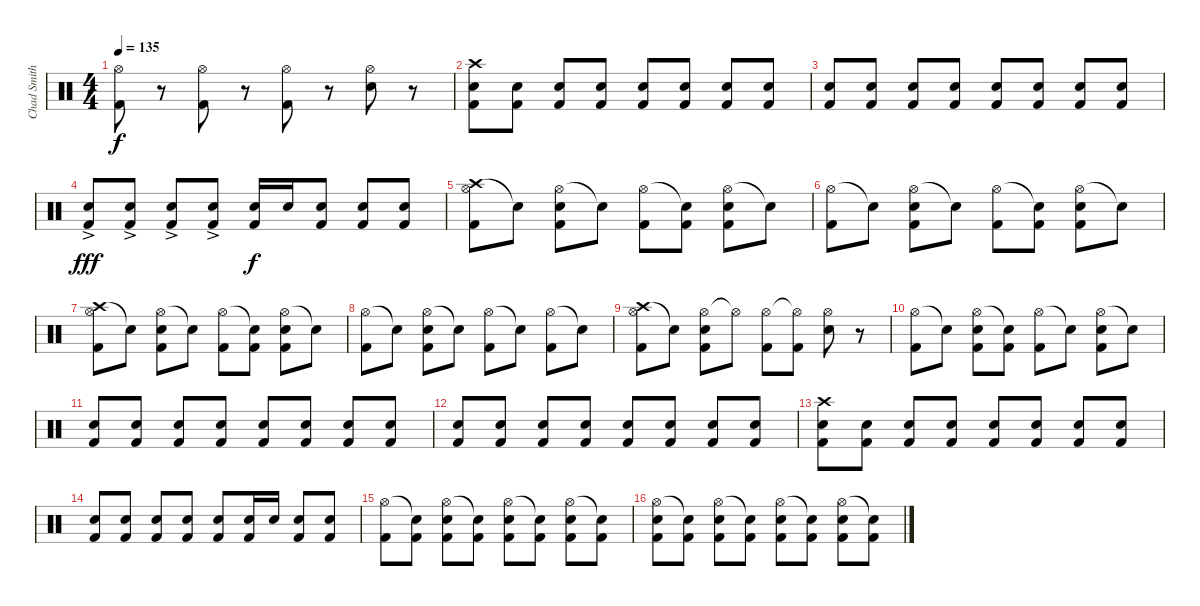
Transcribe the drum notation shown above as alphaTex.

\track ("Chad Smith" "Chad Smith") {instrument percussion}
\staff {score}
\articulation defaults
\ts (4 4)
\tempo 135
\clef neutral
\ks c
("Hi-Hat (open)" "Kick (hit) 2").8{dy f} r.8 ("Hi-Hat (open)" "Kick (hit) 2").8 r.8 ("Hi-Hat (open)" "Kick (hit) 2").8 r.8 ("Hi-Hat (open)" "Electric Snare (hit)").8 r.8 |
("Crash high (hit)" "Electric Snare (hit)" "Kick (hit) 2").8 ("Electric Snare (hit)" "Kick (hit) 2").8 ("Electric Snare (hit)" "Kick (hit) 2").8 ("Electric Snare (hit)" "Kick (hit) 2").8 ("Electric Snare (hit)" "Kick (hit) 2").8 ("Electric Snare (hit)" "Kick (hit) 2").8 ("Electric Snare (hit)" "Kick (hit) 2").8 ("Electric Snare (hit)" "Kick (hit) 2").8 |
("Electric Snare (hit)" "Kick (hit) 2").8 ("Electric Snare (hit)" "Kick (hit) 2").8 ("Electric Snare (hit)" "Kick (hit) 2").8 ("Electric Snare (hit)" "Kick (hit) 2").8 ("Electric Snare (hit)" "Kick (hit) 2").8 ("Electric Snare (hit)" "Kick (hit) 2").8 ("Electric Snare (hit)" "Kick (hit) 2").8 ("Electric Snare (hit)" "Kick (hit) 2").8 |
("Electric Snare (hit)"{ac} "Kick (hit) 2").8{dy fff} ("Electric Snare (hit)"{ac} "Kick (hit) 2").8 ("Electric Snare (hit)"{ac} "Kick (hit) 2").8 ("Electric Snare (hit)"{ac} "Kick (hit) 2").8 ("Electric Snare (hit)" "Kick (hit) 2").16{dy f} "Electric Snare (hit)".16 ("Electric Snare (hit)" "Kick (hit) 2").8 ("Electric Snare (hit)" "Kick (hit) 2").8 ("Electric Snare (hit)" "Kick (hit) 2").8 |
("Crash high (hit)" "Hi-Hat (open)" "Kick (hit) 2").8 "Snare (hit)"{t}.8 ("Hi-Hat (open)" "Electric Snare (hit)" "Kick (hit) 2").8 "Snare (hit)"{t}.8 ("Hi-Hat (open)" "Kick (hit) 2").8 ("Snare (hit)"{t} "Kick (hit) 2").8 ("Hi-Hat (open)" "Electric Snare (hit)" "Kick (hit) 2").8 "Snare (hit)"{t}.8 |
("Hi-Hat (open)" "Kick (hit) 2").8 "Snare (hit)"{t}.8 ("Hi-Hat (open)" "Electric Snare (hit)" "Kick (hit) 2").8 "Snare (hit)"{t}.8 ("Hi-Hat (open)" "Kick (hit) 2").8 ("Snare (hit)"{t} "Kick (hit) 2").8 ("Hi-Hat (open)" "Electric Snare (hit)" "Kick (hit) 2").8 "Snare (hit)"{t}.8 |
("Crash high (hit)" "Hi-Hat (open)" "Kick (hit) 2").8 "Snare (hit)"{t}.8 ("Hi-Hat (open)" "Electric Snare (hit)" "Kick (hit) 2").8 "Snare (hit)"{t}.8 ("Hi-Hat (open)" "Kick (hit) 2").8 ("Snare (hit)"{t} "Kick (hit) 2").8 ("Hi-Hat (open)" "Electric Snare (hit)" "Kick (hit) 2").8 "Snare (hit)"{t}.8 |
("Hi-Hat (open)" "Kick (hit) 2").8 "Snare (hit)"{t}.8 ("Hi-Hat (open)" "Electric Snare (hit)" "Kick (hit) 2").8 "Snare (hit)"{t}.8 ("Hi-Hat (open)" "Kick (hit) 2").8 "Snare (hit)"{t}.8 ("Hi-Hat (open)" "Kick (hit) 2").8 "Snare (hit)"{t}.8 |
("Crash high (hit)" "Hi-Hat (open)" "Kick (hit) 2").8 "Snare (hit)"{t}.8 ("Hi-Hat (open)" "Electric Snare (hit)" "Kick (hit) 2").8 "Hi-Hat (open)"{t}.8 ("Hi-Hat (open)" "Kick (hit) 2").8 ("Hi-Hat (open)"{t} "Kick (hit) 2").8 ("Hi-Hat (open)" "Electric Snare (hit)").8 r.8 |
("Hi-Hat (open)" "Kick (hit) 2").8 "Snare (hit)"{t}.8 ("Hi-Hat (open)" "Electric Snare (hit)" "Kick (hit) 2").8 ("Snare (hit)"{t} "Kick (hit) 2").8 ("Hi-Hat (open)" "Kick (hit) 2").8 "Snare (hit)"{t}.8 ("Hi-Hat (open)" "Electric Snare (hit)" "Kick (hit) 2").8 "Snare (hit)"{t}.8 |
("Electric Snare (hit)" "Kick (hit) 2").8 ("Electric Snare (hit)" "Kick (hit) 2").8 ("Electric Snare (hit)" "Kick (hit) 2").8 ("Electric Snare (hit)" "Kick (hit) 2").8 ("Electric Snare (hit)" "Kick (hit) 2").8 ("Electric Snare (hit)" "Kick (hit) 2").8 ("Electric Snare (hit)" "Kick (hit) 2").8 ("Electric Snare (hit)" "Kick (hit) 2").8 |
("Electric Snare (hit)" "Kick (hit) 2").8 ("Electric Snare (hit)" "Kick (hit) 2").8 ("Electric Snare (hit)" "Kick (hit) 2").8 ("Electric Snare (hit)" "Kick (hit) 2").8 ("Electric Snare (hit)" "Kick (hit) 2").8 ("Electric Snare (hit)" "Kick (hit) 2").8 ("Electric Snare (hit)" "Kick (hit) 2").8 ("Electric Snare (hit)" "Kick (hit) 2").8 |
("Crash high (hit)" "Electric Snare (hit)" "Kick (hit) 2").8 ("Electric Snare (hit)" "Kick (hit) 2").8 ("Electric Snare (hit)" "Kick (hit) 2").8 ("Electric Snare (hit)" "Kick (hit) 2").8 ("Electric Snare (hit)" "Kick (hit) 2").8 ("Electric Snare (hit)" "Kick (hit) 2").8 ("Electric Snare (hit)" "Kick (hit) 2").8 ("Electric Snare (hit)" "Kick (hit) 2").8 |
("Electric Snare (hit)" "Kick (hit) 2").8 ("Electric Snare (hit)" "Kick (hit) 2").8 ("Electric Snare (hit)" "Kick (hit) 2").8 ("Electric Snare (hit)" "Kick (hit) 2").8 ("Electric Snare (hit)" "Kick (hit) 2").8 ("Electric Snare (hit)" "Kick (hit) 2").16 "Electric Snare (hit)".16 ("Electric Snare (hit)" "Kick (hit) 2").8 ("Electric Snare (hit)" "Kick (hit) 2").8 |
("Hi-Hat (open)" "Kick (hit) 2").8 ("Snare (hit)"{t} "Kick (hit) 2").8 ("Hi-Hat (open)" "Electric Snare (hit)" "Kick (hit) 2").8 ("Snare (hit)"{t} "Kick (hit) 2").8 ("Hi-Hat (open)" "Electric Snare (hit)" "Kick (hit) 2").8 ("Snare (hit)"{t} "Kick (hit) 2").8 ("Hi-Hat (open)" "Electric Snare (hit)" "Kick (hit) 2").8 ("Snare (hit)"{t} "Kick (hit) 2").8 |
("Hi-Hat (open)" "Electric Snare (hit)" "Kick (hit) 2").8 ("Snare (hit)"{t} "Kick (hit) 2").8 ("Hi-Hat (open)" "Electric Snare (hit)" "Kick (hit) 2").8 ("Snare (hit)"{t} "Kick (hit) 2").8 ("Hi-Hat (open)" "Electric Snare (hit)" "Kick (hit) 2").8 ("Snare (hit)"{t} "Kick (hit) 2").8 ("Hi-Hat (open)" "Electric Snare (hit)" "Kick (hit) 2").8 ("Snare (hit)"{t} "Kick (hit) 2").8
